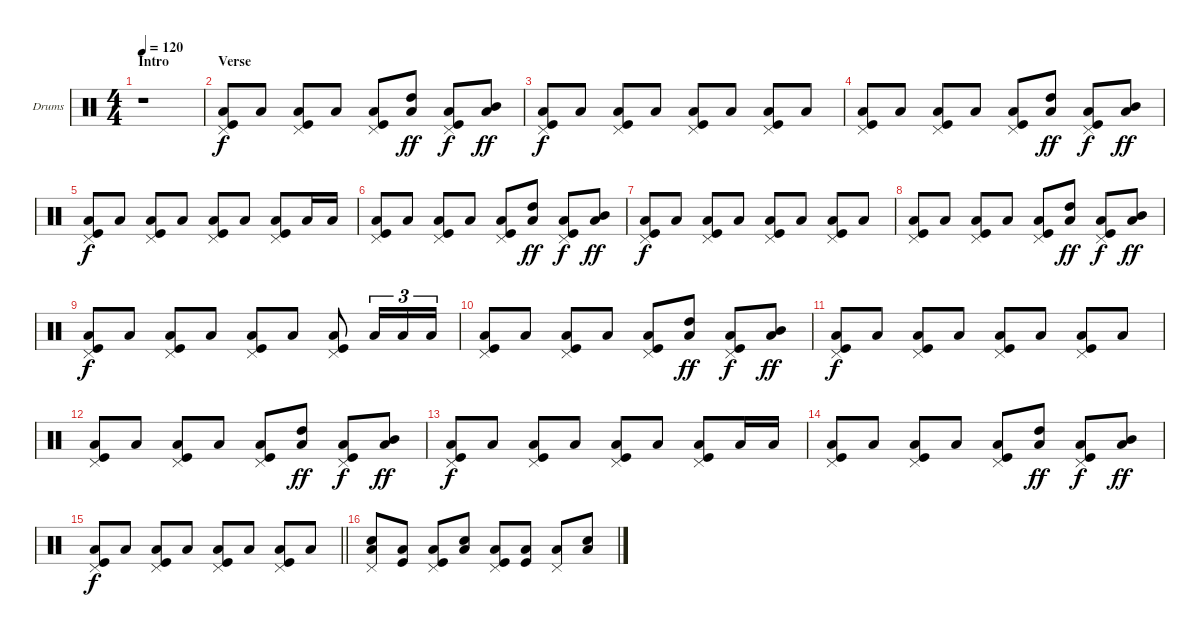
\bracketExtendMode groupsimilarinstruments
\firstSystemTrackNameOrientation horizontal
\otherSystemsTrackNameOrientation horizontal
\track ("Drums" "Drums") {instrument percussion}
\staff {score}
\articulation defaults
\ts (4 4)
\section ("" "Intro")
\tempo 120
\clef neutral
\ks c
r.1{dy f} |
\section ("" "Verse")
("Kick (hit)" "Pedal Hi-Hat (hit)" "Low Tom (hit)").8 "Low Tom (hit)".8 ("Kick (hit)" "Pedal Hi-Hat (hit)" "Low Tom (hit)").8 "Low Tom (hit)".8 ("Kick (hit)" "Pedal Hi-Hat (hit)" "Low Tom (hit)").8 ("Low Tom (hit)" "High Tom (hit)").8{dy ff} ("Kick (hit)" "Pedal Hi-Hat (hit)" "Low Tom (hit)").8{dy f} ("Low Tom (hit)" "Mid Tom (hit)").8{dy ff} |
("Kick (hit)" "Pedal Hi-Hat (hit)" "Low Tom (hit)").8{dy f} "Low Tom (hit)".8 ("Kick (hit)" "Pedal Hi-Hat (hit)" "Low Tom (hit)").8 "Low Tom (hit)".8 ("Kick (hit)" "Pedal Hi-Hat (hit)" "Low Tom (hit)").8 "Low Tom (hit)".8 ("Kick (hit)" "Pedal Hi-Hat (hit)" "Low Tom (hit)").8 "Low Tom (hit)".8 |
("Kick (hit)" "Pedal Hi-Hat (hit)" "Low Tom (hit)").8 "Low Tom (hit)".8 ("Kick (hit)" "Pedal Hi-Hat (hit)" "Low Tom (hit)").8 "Low Tom (hit)".8 ("Kick (hit)" "Pedal Hi-Hat (hit)" "Low Tom (hit)").8 ("Low Tom (hit)" "High Tom (hit)").8{dy ff} ("Kick (hit)" "Pedal Hi-Hat (hit)" "Low Tom (hit)").8{dy f} ("Low Tom (hit)" "Mid Tom (hit)").8{dy ff} |
("Kick (hit)" "Pedal Hi-Hat (hit)" "Low Tom (hit)").8{dy f} "Low Tom (hit)".8 ("Kick (hit)" "Pedal Hi-Hat (hit)" "Low Tom (hit)").8 "Low Tom (hit)".8 ("Kick (hit)" "Pedal Hi-Hat (hit)" "Low Tom (hit)").8 "Low Tom (hit)".8 ("Kick (hit)" "Pedal Hi-Hat (hit)" "Low Tom (hit)").8 "Low Tom (hit)".16 "Low Tom (hit)".16 |
("Kick (hit)" "Pedal Hi-Hat (hit)" "Low Tom (hit)").8 "Low Tom (hit)".8 ("Kick (hit)" "Pedal Hi-Hat (hit)" "Low Tom (hit)").8 "Low Tom (hit)".8 ("Kick (hit)" "Pedal Hi-Hat (hit)" "Low Tom (hit)").8 ("Low Tom (hit)" "High Tom (hit)").8{dy ff} ("Kick (hit)" "Pedal Hi-Hat (hit)" "Low Tom (hit)").8{dy f} ("Low Tom (hit)" "Mid Tom (hit)").8{dy ff} |
("Kick (hit)" "Pedal Hi-Hat (hit)" "Low Tom (hit)").8{dy f} "Low Tom (hit)".8 ("Kick (hit)" "Pedal Hi-Hat (hit)" "Low Tom (hit)").8 "Low Tom (hit)".8 ("Kick (hit)" "Pedal Hi-Hat (hit)" "Low Tom (hit)").8 "Low Tom (hit)".8 ("Kick (hit)" "Pedal Hi-Hat (hit)" "Low Tom (hit)").8 "Low Tom (hit)".8 |
("Kick (hit)" "Pedal Hi-Hat (hit)" "Low Tom (hit)").8 "Low Tom (hit)".8 ("Kick (hit)" "Pedal Hi-Hat (hit)" "Low Tom (hit)").8 "Low Tom (hit)".8 ("Kick (hit)" "Pedal Hi-Hat (hit)" "Low Tom (hit)").8 ("Low Tom (hit)" "High Tom (hit)").8{dy ff} ("Kick (hit)" "Pedal Hi-Hat (hit)" "Low Tom (hit)").8{dy f} ("Low Tom (hit)" "Mid Tom (hit)").8{dy ff} |
("Kick (hit)" "Pedal Hi-Hat (hit)" "Low Tom (hit)").8{dy f} "Low Tom (hit)".8 ("Kick (hit)" "Pedal Hi-Hat (hit)" "Low Tom (hit)").8 "Low Tom (hit)".8 ("Kick (hit)" "Pedal Hi-Hat (hit)" "Low Tom (hit)").8 "Low Tom (hit)".8 ("Kick (hit)" "Pedal Hi-Hat (hit)" "Low Tom (hit)").8 "Low Tom (hit)".16{tu (3 2)} "Low Tom (hit)".16{tu (3 2)} "Low Tom (hit)".16{tu (3 2)} |
("Kick (hit)" "Pedal Hi-Hat (hit)" "Low Tom (hit)").8 "Low Tom (hit)".8 ("Kick (hit)" "Pedal Hi-Hat (hit)" "Low Tom (hit)").8 "Low Tom (hit)".8 ("Kick (hit)" "Pedal Hi-Hat (hit)" "Low Tom (hit)").8 ("Low Tom (hit)" "High Tom (hit)").8{dy ff} ("Kick (hit)" "Pedal Hi-Hat (hit)" "Low Tom (hit)").8{dy f} ("Low Tom (hit)" "Mid Tom (hit)").8{dy ff} |
("Kick (hit)" "Pedal Hi-Hat (hit)" "Low Tom (hit)").8{dy f} "Low Tom (hit)".8 ("Kick (hit)" "Pedal Hi-Hat (hit)" "Low Tom (hit)").8 "Low Tom (hit)".8 ("Kick (hit)" "Pedal Hi-Hat (hit)" "Low Tom (hit)").8 "Low Tom (hit)".8 ("Kick (hit)" "Pedal Hi-Hat (hit)" "Low Tom (hit)").8 "Low Tom (hit)".8 |
("Kick (hit)" "Pedal Hi-Hat (hit)" "Low Tom (hit)").8 "Low Tom (hit)".8 ("Kick (hit)" "Pedal Hi-Hat (hit)" "Low Tom (hit)").8 "Low Tom (hit)".8 ("Kick (hit)" "Pedal Hi-Hat (hit)" "Low Tom (hit)").8 ("Low Tom (hit)" "High Tom (hit)").8{dy ff} ("Kick (hit)" "Pedal Hi-Hat (hit)" "Low Tom (hit)").8{dy f} ("Low Tom (hit)" "Mid Tom (hit)").8{dy ff} |
("Kick (hit)" "Pedal Hi-Hat (hit)" "Low Tom (hit)").8{dy f} "Low Tom (hit)".8 ("Kick (hit)" "Pedal Hi-Hat (hit)" "Low Tom (hit)").8 "Low Tom (hit)".8 ("Kick (hit)" "Pedal Hi-Hat (hit)" "Low Tom (hit)").8 "Low Tom (hit)".8 ("Kick (hit)" "Pedal Hi-Hat (hit)" "Low Tom (hit)").8 "Low Tom (hit)".16 "Low Tom (hit)".16 |
("Kick (hit)" "Pedal Hi-Hat (hit)" "Low Tom (hit)").8 "Low Tom (hit)".8 ("Kick (hit)" "Pedal Hi-Hat (hit)" "Low Tom (hit)").8 "Low Tom (hit)".8 ("Kick (hit)" "Pedal Hi-Hat (hit)" "Low Tom (hit)").8 ("Low Tom (hit)" "High Tom (hit)").8{dy ff} ("Kick (hit)" "Pedal Hi-Hat (hit)" "Low Tom (hit)").8{dy f} ("Low Tom (hit)" "Mid Tom (hit)").8{dy ff} |
\barLineRight lightlight
("Kick (hit)" "Pedal Hi-Hat (hit)" "Low Tom (hit)").8{dy f} "Low Tom (hit)".8 ("Kick (hit)" "Pedal Hi-Hat (hit)" "Low Tom (hit)").8 "Low Tom (hit)".8 ("Kick (hit)" "Pedal Hi-Hat (hit)" "Low Tom (hit)").8 "Low Tom (hit)".8 ("Kick (hit)" "Pedal Hi-Hat (hit)" "Low Tom (hit)").8 "Low Tom (hit)".8 |
("Low Tom (hit)" "Snare (hit) 2" "Pedal Hi-Hat (hit)").8 ("Kick (hit)" "Low Tom (hit)").8 ("Kick (hit)" "Low Tom (hit)" "Pedal Hi-Hat (hit)").8 ("Low Tom (hit)" "Snare (hit) 2").8 ("Kick (hit)" "Low Tom (hit)" "Pedal Hi-Hat (hit)").8 ("Kick (hit)" "Low Tom (hit)").8 ("Low Tom (hit)" "Pedal Hi-Hat (hit)").8 ("Low Tom (hit)" "Snare (hit) 2").8
